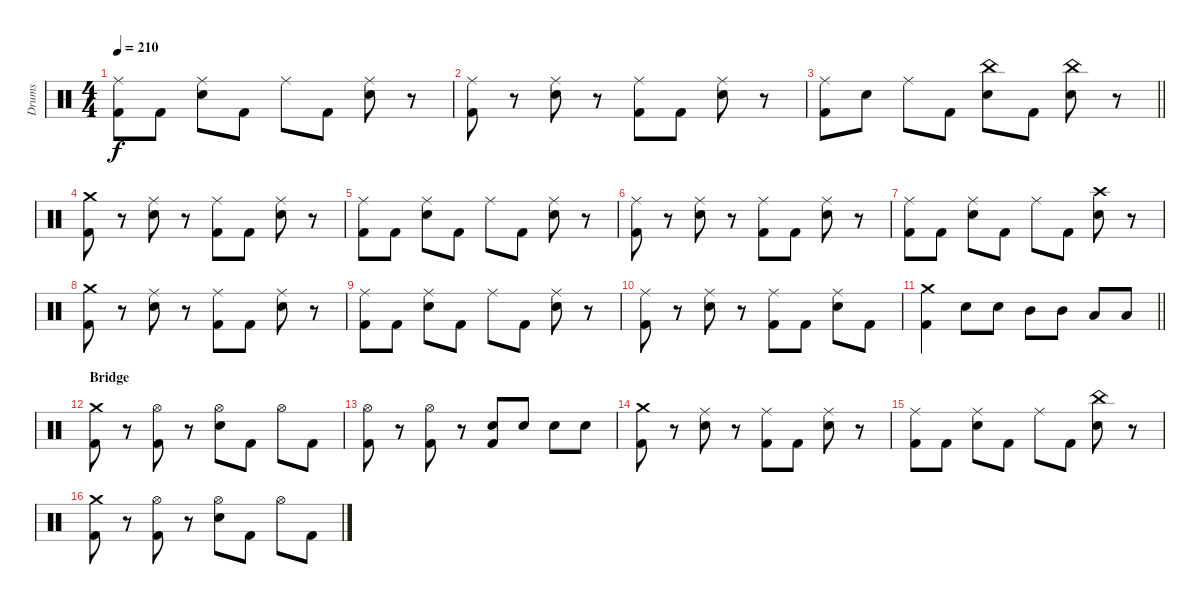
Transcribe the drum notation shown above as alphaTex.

\track ("Drums" "Drums") {instrument percussion}
\staff {score}
\articulation defaults
\ts (4 4)
\tempo 210
\clef neutral
\ks c
("Ride (middle)" "Kick (hit) 2").8{dy f} "Kick (hit) 2".8 ("Ride (middle)" "Electric Snare (hit)").8 "Kick (hit) 2".8 "Ride (middle)".8 "Kick (hit) 2".8 ("Ride (middle)" "Electric Snare (hit)").8 r.8 |
("Ride (middle)" "Kick (hit) 2").8 r.8 ("Ride (middle)" "Electric Snare (hit)").8 r.8 ("Ride (middle)" "Kick (hit) 2").8 "Kick (hit) 2".8 ("Ride (middle)" "Electric Snare (hit)").8 r.8 |
\barLineRight lightlight
("Ride (middle)" "Kick (hit) 2").8 "Electric Snare (hit)".8 "Ride (middle)".8 "Kick (hit) 2".8 ("China (hit)" "Electric Snare (hit)").8 "Kick (hit) 2".8 ("China (hit)" "Electric Snare (hit)").8 r.8 |
\section ("" "")
("Crash medium (hit)" "Kick (hit) 2").8 r.8 ("Ride (middle)" "Electric Snare (hit)").8 r.8 ("Ride (middle)" "Kick (hit) 2").8 "Kick (hit) 2".8 ("Ride (middle)" "Electric Snare (hit)").8 r.8 |
("Ride (middle)" "Kick (hit) 2").8 "Kick (hit) 2".8 ("Ride (middle)" "Electric Snare (hit)").8 "Kick (hit) 2".8 "Ride (middle)".8 "Kick (hit) 2".8 ("Ride (middle)" "Electric Snare (hit)").8 r.8 |
("Ride (middle)" "Kick (hit) 2").8 r.8 ("Ride (middle)" "Electric Snare (hit)").8 r.8 ("Ride (middle)" "Kick (hit) 2").8 "Kick (hit) 2".8 ("Ride (middle)" "Electric Snare (hit)").8 r.8 |
("Ride (middle)" "Kick (hit) 2").8 "Kick (hit) 2".8 ("Ride (middle)" "Electric Snare (hit)").8 "Kick (hit) 2".8 "Ride (middle)".8 "Kick (hit) 2".8 ("Crash high (hit)" "Electric Snare (hit)").8 r.8 |
("Crash medium (hit)" "Kick (hit) 2").8 r.8 ("Ride (middle)" "Electric Snare (hit)").8 r.8 ("Ride (middle)" "Kick (hit) 2").8 "Kick (hit) 2".8 ("Ride (middle)" "Electric Snare (hit)").8 r.8 |
("Ride (middle)" "Kick (hit) 2").8 "Kick (hit) 2".8 ("Ride (middle)" "Electric Snare (hit)").8 "Kick (hit) 2".8 "Ride (middle)".8 "Kick (hit) 2".8 ("Ride (middle)" "Electric Snare (hit)").8 r.8 |
("Ride (middle)" "Kick (hit) 2").8 r.8 ("Ride (middle)" "Electric Snare (hit)").8 r.8 ("Ride (middle)" "Kick (hit) 2").8 "Kick (hit) 2".8 ("Ride (middle)" "Electric Snare (hit)").8 "Kick (hit) 2".8 |
\barLineRight lightlight
("Crash medium (hit)" "Kick (hit) 2").4 "Electric Snare (hit)".8 "Electric Snare (hit)".8 "Mid Tom (hit)".8 "Mid Tom (hit)".8 "Low Tom (hit)".8 "Low Tom (hit)".8 |
\section ("" "Bridge")
("Crash medium (hit)" "Kick (hit) 2").8 r.8 ("Hi-Hat (open)" "Kick (hit) 2").8 r.8 ("Hi-Hat (open)" "Electric Snare (hit)").8 "Kick (hit) 2".8 "Hi-Hat (open)".8 "Kick (hit) 2".8 |
("Hi-Hat (open)" "Kick (hit) 2").8 r.8 ("Hi-Hat (open)" "Kick (hit) 2").8 r.8 ("Electric Snare (hit)" "Kick (hit) 2").8 "Electric Snare (hit)".8 "Electric Snare (hit)".8 "Electric Snare (hit)".8 |
("Crash medium (hit)" "Kick (hit) 2").8 r.8 ("Ride (middle)" "Electric Snare (hit)").8 r.8 ("Ride (middle)" "Kick (hit) 2").8 "Kick (hit) 2".8 ("Ride (middle)" "Electric Snare (hit)").8 r.8 |
("Ride (middle)" "Kick (hit) 2").8 "Kick (hit) 2".8 ("Ride (middle)" "Electric Snare (hit)").8 "Kick (hit) 2".8 "Ride (middle)".8 "Kick (hit) 2".8 ("China (hit)" "Electric Snare (hit)").8 r.8 |
("Crash medium (hit)" "Kick (hit) 2").8 r.8 ("Hi-Hat (open)" "Kick (hit) 2").8 r.8 ("Hi-Hat (open)" "Electric Snare (hit)").8 "Kick (hit) 2".8 "Hi-Hat (open)".8 "Kick (hit) 2".8
